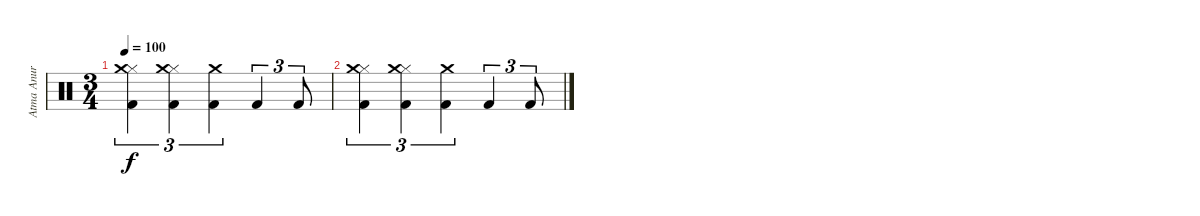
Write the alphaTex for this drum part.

\track ("Atma Anur" "Atma Anur") {instrument percussion}
\staff {score}
\articulation defaults
\ts (3 4)
\tempo 100
\clef neutral
\ks c
("Hi-Hat (closed)" "Crash medium (hit)" "Kick (hit) 2").4{tu (3 2) dy f} ("Hi-Hat (closed)" "Crash medium (hit)" "Kick (hit) 2").4{tu (3 2)} ("Crash medium (hit)" "Kick (hit) 2").4{tu (3 2)} "Kick (hit) 2".4{tu (3 2)} "Kick (hit) 2".8{tu (3 2)} |
("Hi-Hat (closed)" "Crash medium (hit)" "Kick (hit) 2").4{tu (3 2)} ("Hi-Hat (closed)" "Crash medium (hit)" "Kick (hit) 2").4{tu (3 2)} ("Crash medium (hit)" "Kick (hit) 2").4{tu (3 2)} "Kick (hit) 2".4{tu (3 2)} "Kick (hit) 2".8{tu (3 2)}
